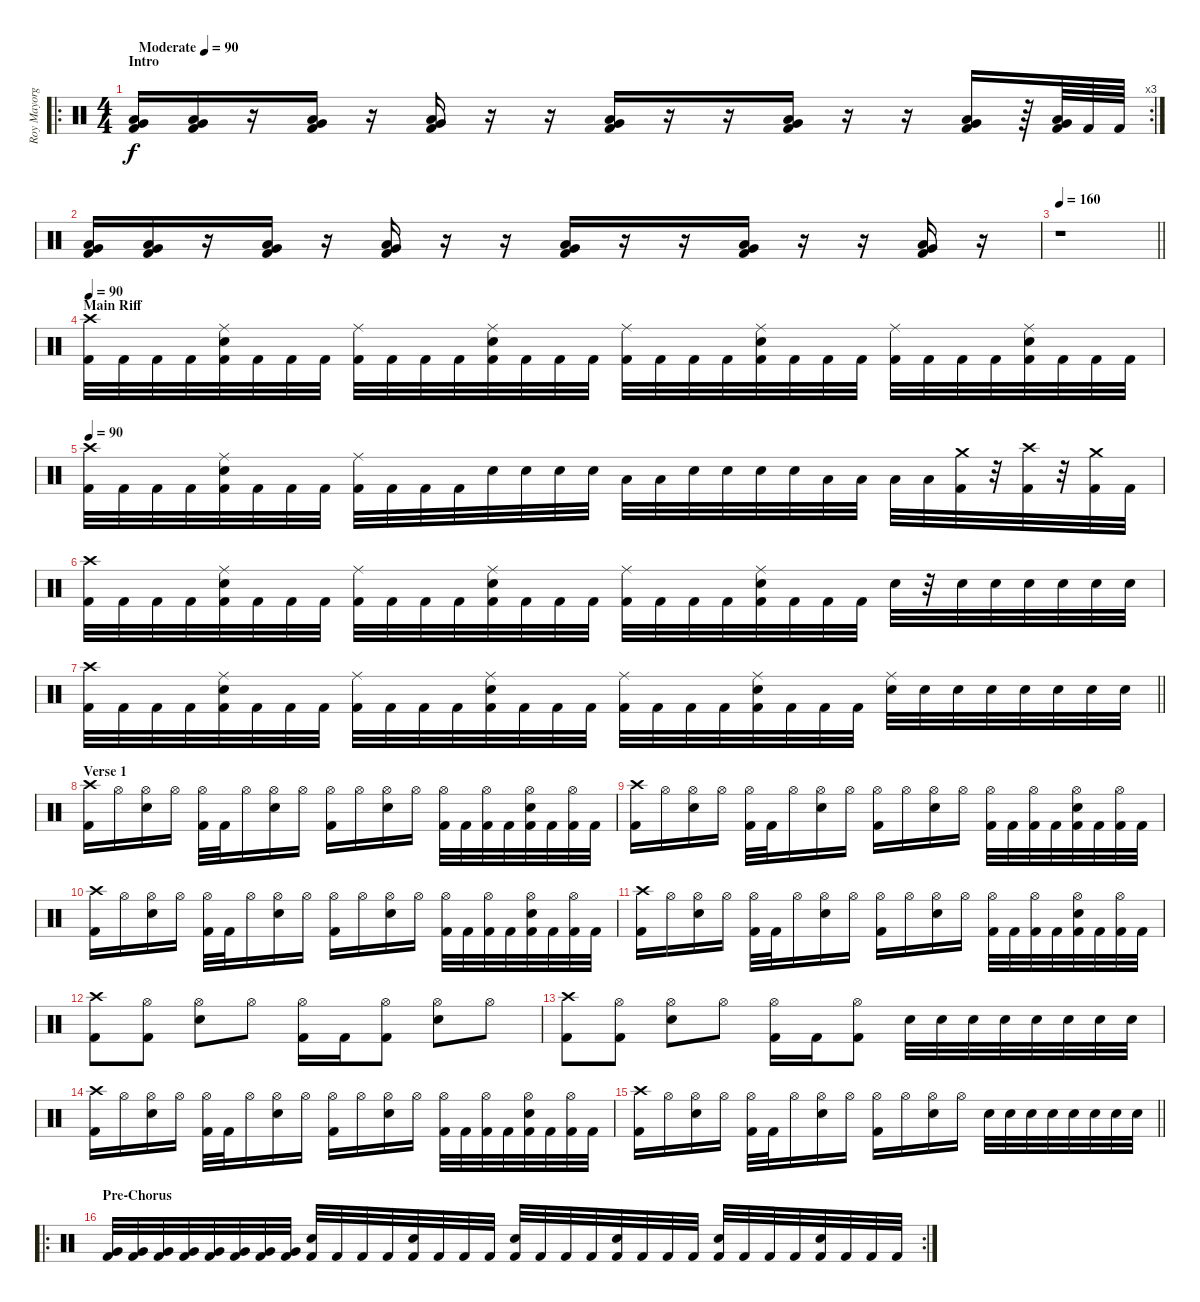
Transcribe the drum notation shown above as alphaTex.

\track ("Roy Mayorga" "Roy Mayorg") {instrument percussion}
\staff {score}
\articulation defaults
\ro
\rc 3
\ts (4 4)
\section ("" "Intro")
\tempo (90 "Moderate")
\clef neutral
\ks c
("Kick (hit) 2" "Low Tom (hit)" "Very Low Tom (hit)").16{dy f} ("Kick (hit) 2" "Low Tom (hit)" "Very Low Tom (hit)").16 r.16 ("Kick (hit) 2" "Low Tom (hit)" "Very Low Tom (hit)").16 r.16 ("Kick (hit) 2" "Low Tom (hit)" "Very Low Tom (hit)").16 r.16 r.16 ("Kick (hit) 2" "Low Tom (hit)" "Very Low Tom (hit)").16 r.16 r.16 ("Kick (hit) 2" "Low Tom (hit)" "Very Low Tom (hit)").16 r.16 r.16 ("Kick (hit) 2" "Low Tom (hit)" "Very Low Tom (hit)").16 r.64 ("Kick (hit) 2" "Low Tom (hit)" "Very Low Tom (hit)").64 "Kick (hit) 2".64 "Kick (hit) 2".64 |
("Kick (hit) 2" "Low Tom (hit)" "Very Low Tom (hit)").16 ("Kick (hit) 2" "Low Tom (hit)" "Very Low Tom (hit)").16 r.16 ("Kick (hit) 2" "Low Tom (hit)" "Very Low Tom (hit)").16 r.16 ("Kick (hit) 2" "Low Tom (hit)" "Very Low Tom (hit)").16 r.16 r.16 ("Kick (hit) 2" "Low Tom (hit)" "Very Low Tom (hit)").16 r.16 r.16 ("Kick (hit) 2" "Low Tom (hit)" "Very Low Tom (hit)").16 r.16 r.16 ("Kick (hit) 2" "Low Tom (hit)" "Very Low Tom (hit)").16 r.16 |
\tempo 160
\barLineRight lightlight
r.1{volume 15} |
\section ("" "Main Riff")
\tempo 90
("Kick (hit) 2" "Crash high (hit)").32 "Kick (hit) 2".32 "Kick (hit) 2".32 "Kick (hit) 2".32 ("Kick (hit) 2" "Electric Snare (hit)" "Ride (middle)").32 "Kick (hit) 2".32 "Kick (hit) 2".32 "Kick (hit) 2".32 ("Kick (hit) 2" "Ride (middle)").32 "Kick (hit) 2".32 "Kick (hit) 2".32 "Kick (hit) 2".32 ("Kick (hit) 2" "Electric Snare (hit)" "Ride (middle)").32 "Kick (hit) 2".32 "Kick (hit) 2".32 "Kick (hit) 2".32 ("Kick (hit) 2" "Ride (middle)").32 "Kick (hit) 2".32 "Kick (hit) 2".32 "Kick (hit) 2".32 ("Kick (hit) 2" "Electric Snare (hit)" "Ride (middle)").32 "Kick (hit) 2".32 "Kick (hit) 2".32 "Kick (hit) 2".32 ("Kick (hit) 2" "Ride (middle)").32 "Kick (hit) 2".32 "Kick (hit) 2".32 "Kick (hit) 2".32 ("Kick (hit) 2" "Electric Snare (hit)" "Ride (middle)").32 "Kick (hit) 2".32 "Kick (hit) 2".32 "Kick (hit) 2".32 |
\tempo 90
("Kick (hit) 2" "Crash high (hit)").32 "Kick (hit) 2".32 "Kick (hit) 2".32 "Kick (hit) 2".32 ("Kick (hit) 2" "Electric Snare (hit)" "Ride (middle)").32 "Kick (hit) 2".32 "Kick (hit) 2".32 "Kick (hit) 2".32 ("Kick (hit) 2" "Ride (middle)").32 "Kick (hit) 2".32 "Kick (hit) 2".32 "Kick (hit) 2".32 "Electric Snare (hit)".32 "Electric Snare (hit)".32 "Electric Snare (hit)".32 "Electric Snare (hit)".32 "Low Tom (hit)".32 "Low Tom (hit)".32 "Electric Snare (hit)".32 "Electric Snare (hit)".32 "Electric Snare (hit)".32 "Electric Snare (hit)".32 "Low Tom (hit)".32 "Low Tom (hit)".32 "Low Tom (hit)".32 "Low Tom (hit)".32 ("Kick (hit) 2" "Crash medium (hit)").32 r.32 ("Kick (hit) 2" "Crash high (hit)").32 r.32 ("Kick (hit) 2" "Crash medium (hit)").32 "Kick (hit) 2".32 |
("Kick (hit) 2" "Crash high (hit)").32 "Kick (hit) 2".32 "Kick (hit) 2".32 "Kick (hit) 2".32 ("Kick (hit) 2" "Electric Snare (hit)" "Ride (middle)").32 "Kick (hit) 2".32 "Kick (hit) 2".32 "Kick (hit) 2".32 ("Kick (hit) 2" "Ride (middle)").32 "Kick (hit) 2".32 "Kick (hit) 2".32 "Kick (hit) 2".32 ("Kick (hit) 2" "Electric Snare (hit)" "Ride (middle)").32 "Kick (hit) 2".32 "Kick (hit) 2".32 "Kick (hit) 2".32 ("Kick (hit) 2" "Ride (middle)").32 "Kick (hit) 2".32 "Kick (hit) 2".32 "Kick (hit) 2".32 ("Kick (hit) 2" "Electric Snare (hit)" "Ride (middle)").32 "Kick (hit) 2".32 "Kick (hit) 2".32 "Kick (hit) 2".32 "Electric Snare (hit)".32 r.32 "Electric Snare (hit)".32 "Electric Snare (hit)".32 "Electric Snare (hit)".32 "Electric Snare (hit)".32 "Electric Snare (hit)".32 "Electric Snare (hit)".32 |
\barLineRight lightlight
("Kick (hit) 2" "Crash high (hit)").32 "Kick (hit) 2".32 "Kick (hit) 2".32 "Kick (hit) 2".32 ("Kick (hit) 2" "Electric Snare (hit)" "Ride (middle)").32 "Kick (hit) 2".32 "Kick (hit) 2".32 "Kick (hit) 2".32 ("Kick (hit) 2" "Ride (middle)").32 "Kick (hit) 2".32 "Kick (hit) 2".32 "Kick (hit) 2".32 ("Kick (hit) 2" "Electric Snare (hit)" "Ride (middle)").32 "Kick (hit) 2".32 "Kick (hit) 2".32 "Kick (hit) 2".32 ("Kick (hit) 2" "Ride (middle)").32 "Kick (hit) 2".32 "Kick (hit) 2".32 "Kick (hit) 2".32 ("Kick (hit) 2" "Electric Snare (hit)" "Ride (middle)").32 "Kick (hit) 2".32 "Kick (hit) 2".32 "Kick (hit) 2".32 ("Electric Snare (hit)" "Ride (middle)").32 "Electric Snare (hit)".32 "Electric Snare (hit)".32 "Electric Snare (hit)".32 "Electric Snare (hit)".32 "Electric Snare (hit)".32 "Electric Snare (hit)".32 "Electric Snare (hit)".32 |
\section ("" "Verse 1")
("Kick (hit) 2" "Crash high (hit)").16 "Hi-Hat (open)".16 ("Electric Snare (hit)" "Hi-Hat (open)").16 "Hi-Hat (open)".16 ("Kick (hit) 2" "Hi-Hat (open)").32 "Kick (hit) 2".32 "Hi-Hat (open)".16 ("Electric Snare (hit)" "Hi-Hat (open)").16 "Hi-Hat (open)".16 ("Kick (hit) 2" "Hi-Hat (open)").16 "Hi-Hat (open)".16 ("Electric Snare (hit)" "Hi-Hat (open)").16 "Hi-Hat (open)".16 ("Kick (hit) 2" "Hi-Hat (open)").32 "Kick (hit) 2".32 ("Kick (hit) 2" "Hi-Hat (open)").32 "Kick (hit) 2".32 ("Kick (hit) 2" "Electric Snare (hit)" "Hi-Hat (open)").32 "Kick (hit) 2".32 ("Kick (hit) 2" "Hi-Hat (open)").32 "Kick (hit) 2".32 |
("Kick (hit) 2" "Crash high (hit)").16 "Hi-Hat (open)".16 ("Electric Snare (hit)" "Hi-Hat (open)").16 "Hi-Hat (open)".16 ("Kick (hit) 2" "Hi-Hat (open)").32 "Kick (hit) 2".32 "Hi-Hat (open)".16 ("Electric Snare (hit)" "Hi-Hat (open)").16 "Hi-Hat (open)".16 ("Kick (hit) 2" "Hi-Hat (open)").16 "Hi-Hat (open)".16 ("Electric Snare (hit)" "Hi-Hat (open)").16 "Hi-Hat (open)".16 ("Kick (hit) 2" "Hi-Hat (open)").32 "Kick (hit) 2".32 ("Kick (hit) 2" "Hi-Hat (open)").32 "Kick (hit) 2".32 ("Kick (hit) 2" "Electric Snare (hit)" "Hi-Hat (open)").32 "Kick (hit) 2".32 ("Kick (hit) 2" "Hi-Hat (open)").32 "Kick (hit) 2".32 |
("Kick (hit) 2" "Crash high (hit)").16 "Hi-Hat (open)".16 ("Electric Snare (hit)" "Hi-Hat (open)").16 "Hi-Hat (open)".16 ("Kick (hit) 2" "Hi-Hat (open)").32 "Kick (hit) 2".32 "Hi-Hat (open)".16 ("Electric Snare (hit)" "Hi-Hat (open)").16 "Hi-Hat (open)".16 ("Kick (hit) 2" "Hi-Hat (open)").16 "Hi-Hat (open)".16 ("Electric Snare (hit)" "Hi-Hat (open)").16 "Hi-Hat (open)".16 ("Kick (hit) 2" "Hi-Hat (open)").32 "Kick (hit) 2".32 ("Kick (hit) 2" "Hi-Hat (open)").32 "Kick (hit) 2".32 ("Kick (hit) 2" "Electric Snare (hit)" "Hi-Hat (open)").32 "Kick (hit) 2".32 ("Kick (hit) 2" "Hi-Hat (open)").32 "Kick (hit) 2".32 |
("Kick (hit) 2" "Crash high (hit)").16 "Hi-Hat (open)".16 ("Electric Snare (hit)" "Hi-Hat (open)").16 "Hi-Hat (open)".16 ("Kick (hit) 2" "Hi-Hat (open)").32 "Kick (hit) 2".32 "Hi-Hat (open)".16 ("Electric Snare (hit)" "Hi-Hat (open)").16 "Hi-Hat (open)".16 ("Kick (hit) 2" "Hi-Hat (open)").16 "Hi-Hat (open)".16 ("Electric Snare (hit)" "Hi-Hat (open)").16 "Hi-Hat (open)".16 ("Kick (hit) 2" "Hi-Hat (open)").32 "Kick (hit) 2".32 ("Kick (hit) 2" "Hi-Hat (open)").32 "Kick (hit) 2".32 ("Kick (hit) 2" "Electric Snare (hit)" "Hi-Hat (open)").32 "Kick (hit) 2".32 ("Kick (hit) 2" "Hi-Hat (open)").32 "Kick (hit) 2".32 |
("Kick (hit) 2" "Crash high (hit)").8 ("Kick (hit) 2" "Hi-Hat (open)").8 ("Electric Snare (hit)" "Hi-Hat (open)").8 "Hi-Hat (open)".8 ("Kick (hit) 2" "Hi-Hat (open)").16 "Kick (hit) 2".16 ("Kick (hit) 2" "Hi-Hat (open)").8 ("Electric Snare (hit)" "Hi-Hat (open)").8 "Hi-Hat (open)".8 |
("Kick (hit) 2" "Crash high (hit)").8 ("Kick (hit) 2" "Hi-Hat (open)").8 ("Electric Snare (hit)" "Hi-Hat (open)").8 "Hi-Hat (open)".8 ("Kick (hit) 2" "Hi-Hat (open)").16 "Kick (hit) 2".16 ("Kick (hit) 2" "Hi-Hat (open)").8 "Electric Snare (hit)".32 "Electric Snare (hit)".32 "Electric Snare (hit)".32 "Electric Snare (hit)".32 "Electric Snare (hit)".32 "Electric Snare (hit)".32 "Electric Snare (hit)".32 "Electric Snare (hit)".32 |
("Kick (hit) 2" "Crash high (hit)").16 "Hi-Hat (open)".16 ("Electric Snare (hit)" "Hi-Hat (open)").16 "Hi-Hat (open)".16 ("Kick (hit) 2" "Hi-Hat (open)").32 "Kick (hit) 2".32 "Hi-Hat (open)".16 ("Electric Snare (hit)" "Hi-Hat (open)").16 "Hi-Hat (open)".16 ("Kick (hit) 2" "Hi-Hat (open)").16 "Hi-Hat (open)".16 ("Electric Snare (hit)" "Hi-Hat (open)").16 "Hi-Hat (open)".16 ("Kick (hit) 2" "Hi-Hat (open)").32 "Kick (hit) 2".32 ("Kick (hit) 2" "Hi-Hat (open)").32 "Kick (hit) 2".32 ("Kick (hit) 2" "Electric Snare (hit)" "Hi-Hat (open)").32 "Kick (hit) 2".32 ("Kick (hit) 2" "Hi-Hat (open)").32 "Kick (hit) 2".32 |
\barLineRight lightlight
("Kick (hit) 2" "Crash high (hit)").16 "Hi-Hat (open)".16 ("Electric Snare (hit)" "Hi-Hat (open)").16 "Hi-Hat (open)".16 ("Kick (hit) 2" "Hi-Hat (open)").32 "Kick (hit) 2".32 "Hi-Hat (open)".16 ("Electric Snare (hit)" "Hi-Hat (open)").16 "Hi-Hat (open)".16 ("Kick (hit) 2" "Hi-Hat (open)").16 "Hi-Hat (open)".16 ("Electric Snare (hit)" "Hi-Hat (open)").16 "Hi-Hat (open)".16 "Electric Snare (hit)".32 "Electric Snare (hit)".32 "Electric Snare (hit)".32 "Electric Snare (hit)".32 "Electric Snare (hit)".32 "Electric Snare (hit)".32 "Electric Snare (hit)".32 "Electric Snare (hit)".32 |
\ro
\rc 2
\section ("" "Pre-Chorus")
("Kick (hit) 2" "Very Low Tom (hit)").32 ("Kick (hit) 2" "Very Low Tom (hit)").32 ("Kick (hit) 2" "Very Low Tom (hit)").32 ("Kick (hit) 2" "Very Low Tom (hit)").32 ("Kick (hit) 2" "Very Low Tom (hit)").32 ("Kick (hit) 2" "Very Low Tom (hit)").32 ("Kick (hit) 2" "Very Low Tom (hit)").32 ("Kick (hit) 2" "Very Low Tom (hit)").32 ("Kick (hit) 2" "Electric Snare (hit)").32 "Kick (hit) 2".32 "Kick (hit) 2".32 "Kick (hit) 2".32 ("Kick (hit) 2" "Electric Snare (hit)").32 "Kick (hit) 2".32 "Kick (hit) 2".32 "Kick (hit) 2".32 ("Kick (hit) 2" "Electric Snare (hit)").32 "Kick (hit) 2".32 "Kick (hit) 2".32 "Kick (hit) 2".32 ("Kick (hit) 2" "Electric Snare (hit)").32 "Kick (hit) 2".32 "Kick (hit) 2".32 "Kick (hit) 2".32 ("Kick (hit) 2" "Electric Snare (hit)").32 "Kick (hit) 2".32 "Kick (hit) 2".32 "Kick (hit) 2".32 ("Kick (hit) 2" "Electric Snare (hit)").32 "Kick (hit) 2".32 "Kick (hit) 2".32 "Kick (hit) 2".32
